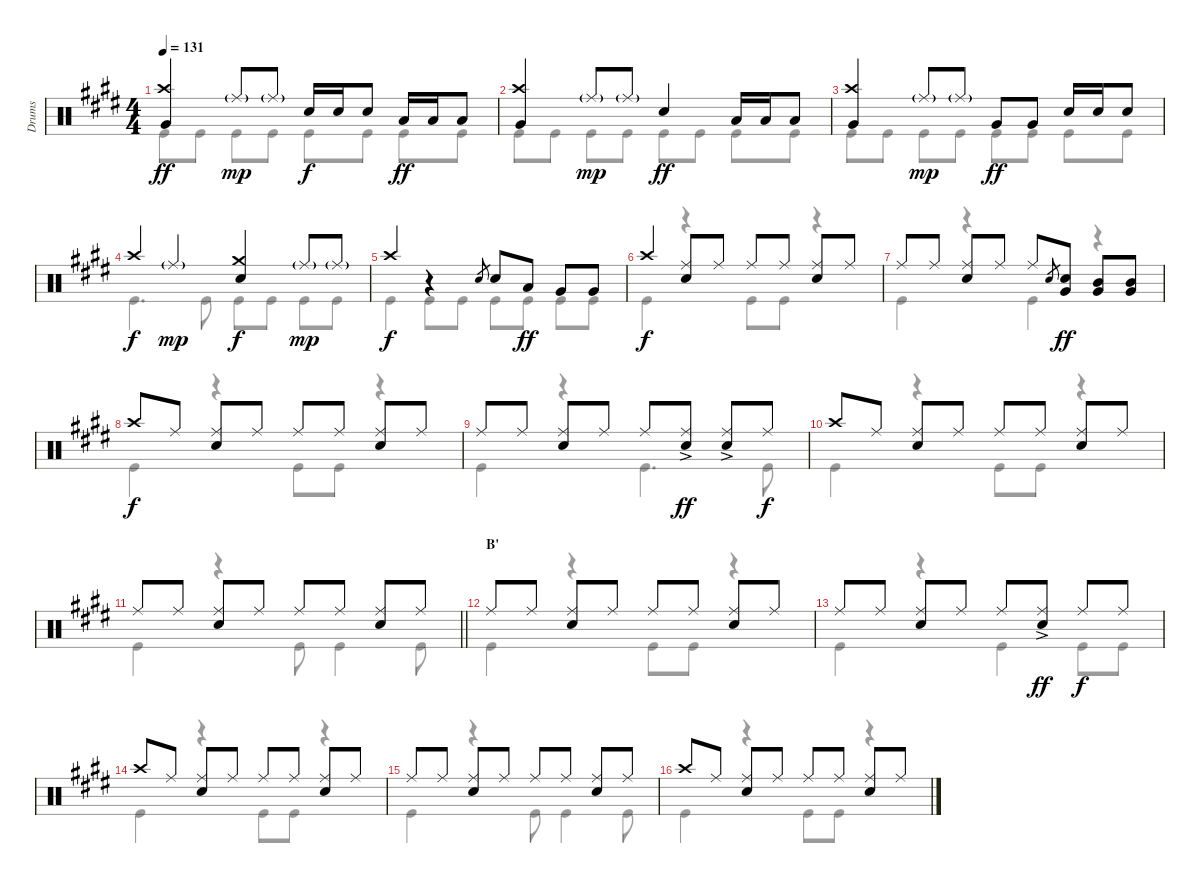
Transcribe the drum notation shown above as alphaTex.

\track ("Drums" "Drums") {instrument percussion}
\staff {score}
\articulation defaults
\voice
\ts (4 4)
\tempo 131
\clef neutral
\ks c#minor
("Crash high (hit)" "Very Low Tom (hit)").4{dy ff} "Ride (middle)"{g}.8{dy mp} "Ride (middle)"{g}.8 "Electric Snare (hit)".16{dy f} "Electric Snare (hit)".16 "Electric Snare (hit)".8 "Low Tom (hit)".16{dy ff} "Low Tom (hit)".16 "Low Tom (hit)".8 |
("Crash high (hit)" "Very Low Tom (hit)").4 "Ride (middle)"{g}.8{dy mp} "Ride (middle)"{g}.8 "Electric Snare (hit)".4{dy ff} "Low Tom (hit)".16 "Low Tom (hit)".16 "Low Tom (hit)".8 |
("Crash high (hit)" "Very Low Tom (hit)").4 "Ride (middle)"{g}.8{dy mp} "Ride (middle)"{g}.8 "Very Low Tom (hit)".8{dy ff} "Very Low Tom (hit)".8 "Electric Snare (hit)".16 "Electric Snare (hit)".16 "Electric Snare (hit)".8 |
"Crash high (hit)".4{dy f} "Ride (middle)"{g}.4{dy mp} ("Crash medium (hit)" "Electric Snare (hit)").4{dy f} "Ride (middle)"{g}.8{dy mp} "Ride (middle)"{g}.8 |
"Crash high (hit)".4{dy f} r.4 "Electric Snare (hit)".8{gr} "Electric Snare (hit)".8 "Low Tom (hit)".8{dy ff} "Very Low Tom (hit)".8 "Very Low Tom (hit)".8 |
"Crash high (hit)".4{dy f} ("Ride (middle)" "Electric Snare (hit)").8 "Ride (middle)".8 "Ride (middle)".8 "Ride (middle)".8 ("Ride (middle)" "Electric Snare (hit)").8 "Ride (middle)".8 |
"Ride (middle)".8 "Ride (middle)".8 ("Ride (middle)" "Electric Snare (hit)").8 "Ride (middle)".8 "Ride (middle)".8 "Electric Snare (hit)".8{gr} ("Electric Snare (hit)" "Very Low Tom (hit)").8{dy ff} ("Mid Tom (hit)" "Very Low Tom (hit)").8 ("Mid Tom (hit)" "Very Low Tom (hit)").8 |
"Crash high (hit)".8{dy f} "Ride (middle)".8 ("Ride (middle)" "Electric Snare (hit)").8 "Ride (middle)".8 "Ride (middle)".8 "Ride (middle)".8 ("Ride (middle)" "Electric Snare (hit)").8 "Ride (middle)".8 |
"Ride (middle)".8 "Ride (middle)".8 ("Ride (middle)" "Electric Snare (hit)").8 "Ride (middle)".8 "Ride (middle)".8 ("Ride (middle)" "Electric Snare (hit)"{ac}).8{dy ff} ("Ride (middle)" "Electric Snare (hit)"{ac}).8 "Ride (middle)".8{dy f} |
"Crash high (hit)".8 "Ride (middle)".8 ("Ride (middle)" "Electric Snare (hit)").8 "Ride (middle)".8 "Ride (middle)".8 "Ride (middle)".8 ("Ride (middle)" "Electric Snare (hit)").8 "Ride (middle)".8 |
\barLineRight lightlight "Ride (middle)".8 "Ride (middle)".8
("Ride (middle)" "Electric Snare (hit)").8 "Ride (middle)".8 "Ride (middle)".8 "Ride (middle)".8 ("Ride (middle)" "Electric Snare (hit)").8 "Ride (middle)".8 |
\section ("" "B'")
"Ride (middle)".8 "Ride (middle)".8 ("Ride (middle)" "Electric Snare (hit)").8 "Ride (middle)".8 "Ride (middle)".8 "Ride (middle)".8 ("Ride (middle)" "Electric Snare (hit)").8 "Ride (middle)".8 |
"Ride (middle)".8 "Ride (middle)".8 ("Ride (middle)" "Electric Snare (hit)").8 "Ride (middle)".8 "Ride (middle)".8 ("Ride (middle)" "Electric Snare (hit)"{ac}).8{dy ff} "Ride (middle)".8{dy f} "Ride (middle)".8 |
"Crash high (hit)".8 "Ride (middle)".8 ("Ride (middle)" "Electric Snare (hit)").8 "Ride (middle)".8 "Ride (middle)".8 "Ride (middle)".8 ("Ride (middle)" "Electric Snare (hit)").8 "Ride (middle)".8 |
"Ride (middle)".8 "Ride (middle)".8 ("Ride (middle)" "Electric Snare (hit)").8 "Ride (middle)".8 "Ride (middle)".8 "Ride (middle)".8 ("Ride (middle)" "Electric Snare (hit)").8 "Ride (middle)".8 |
"Crash high (hit)".8 "Ride (middle)".8 ("Ride (middle)" "Electric Snare (hit)").8 "Ride (middle)".8 "Ride (middle)".8 "Ride (middle)".8 ("Ride (middle)" "Electric Snare (hit)").8 "Ride (middle)".8
\voice
\clef neutral
\ottava regular
\simile none
\ks c#minor "Kick (hit)".8{dy ff} "Kick (hit)".8 "Kick (hit)".8 "Kick (hit)".8 "Kick (hit)".8 "Kick (hit)".8 "Kick (hit)".8 "Kick (hit)".8
|
"Kick (hit)".8 "Kick (hit)".8 "Kick (hit)".8 "Kick (hit)".8 "Kick (hit)".8 "Kick (hit)".8 "Kick (hit)".8 "Kick (hit)".8 |
"Kick (hit)".8 "Kick (hit)".8 "Kick (hit)".8 "Kick (hit)".8 "Kick (hit)".8 "Kick (hit)".8 "Kick (hit)".8 "Kick (hit)".8 |
"Kick (hit)".4{d} "Kick (hit)".8 "Kick (hit)".8 "Kick (hit)".8 "Kick (hit)".8 "Kick (hit)".8 |
"Kick (hit)".4 "Kick (hit)".8 "Kick (hit)".8 "Kick (hit)".8 "Kick (hit)".8 "Kick (hit)".8 "Kick (hit)".8 |
"Kick (hit)".4 r.4 "Kick (hit)".8 "Kick (hit)".8 r.4 |
"Kick (hit)".4 r.4 "Kick (hit)".4 r.4 |
"Kick (hit)".4 r.4 "Kick (hit)".8 "Kick (hit)".8 r.4 |
"Kick (hit)".4 r.4 "Kick (hit)".4{d} "Kick (hit)".8 |
"Kick (hit)".4 r.4 "Kick (hit)".8 "Kick (hit)".8 r.4 |
\barLineRight lightlight "Kick (hit)".4
r.4 "Kick (hit)".8 "Kick (hit)".4 "Kick (hit)".8 |
"Kick (hit)".4 r.4 "Kick (hit)".8 "Kick (hit)".8 r.4 |
"Kick (hit)".4 r.4 "Kick (hit)".4 "Kick (hit)".8 "Kick (hit)".8 |
"Kick (hit)".4 r.4 "Kick (hit)".8 "Kick (hit)".8 r.4 |
"Kick (hit)".4 r.4 "Kick (hit)".8 "Kick (hit)".4 "Kick (hit)".8 |
"Kick (hit)".4 r.4 "Kick (hit)".8 "Kick (hit)".8 r.4
